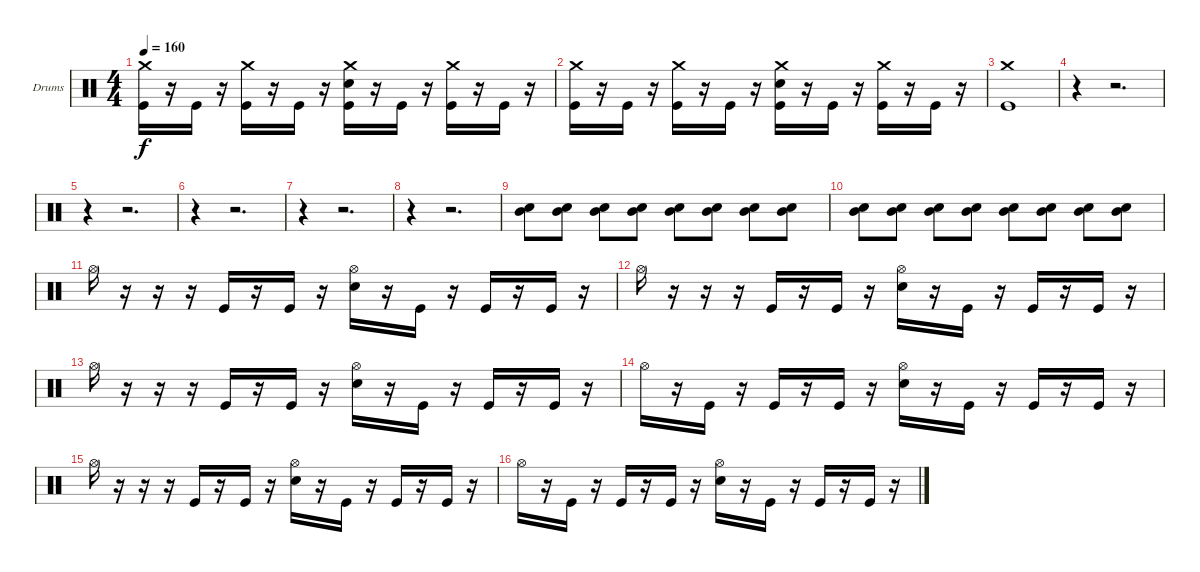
\bracketExtendMode groupsimilarinstruments
\firstSystemTrackNameOrientation horizontal
\otherSystemsTrackNameOrientation horizontal
\track ("Drumkit" "Drums") {instrument percussion}
\staff {score}
\articulation defaults
\ts (4 4)
\tempo 160
\clef neutral
\ks c
("Crash medium (hit)" "Kick (hit)").16{dy f} r.16 "Kick (hit)".16 r.16 ("Crash medium (hit)" "Kick (hit)").16 r.16 "Kick (hit)".16 r.16 ("Crash medium (hit)" "Snare (hit) 2" "Kick (hit)").16 r.16 "Kick (hit)".16 r.16 ("Crash medium (hit)" "Kick (hit)").16 r.16 "Kick (hit)".16 r.16 |
("Crash medium (hit)" "Kick (hit)").16 r.16 "Kick (hit)".16 r.16 ("Crash medium (hit)" "Kick (hit)").16 r.16 "Kick (hit)".16 r.16 ("Crash medium (hit)" "Snare (hit) 2" "Kick (hit)").16 r.16 "Kick (hit)".16 r.16 ("Crash medium (hit)" "Kick (hit)").16 r.16 "Kick (hit)".16 r.16 |
("Crash medium (hit)" "Kick (hit)").1 |
r.4 r.2{d} |
r.4 r.2{d} |
r.4 r.2{d} |
r.4 r.2{d} |
r.4 r.2{d} |
("Mid Tom (hit)" "Snare (hit) 2").8 ("Mid Tom (hit)" "Snare (hit) 2").8 ("Mid Tom (hit)" "Snare (hit) 2").8 ("Mid Tom (hit)" "Snare (hit) 2").8 ("Mid Tom (hit)" "Snare (hit) 2").8 ("Mid Tom (hit)" "Snare (hit) 2").8 ("Mid Tom (hit)" "Snare (hit) 2").8 ("Mid Tom (hit)" "Snare (hit) 2").8 |
("Mid Tom (hit)" "Snare (hit) 2").8 ("Mid Tom (hit)" "Snare (hit) 2").8 ("Mid Tom (hit)" "Snare (hit) 2").8 ("Mid Tom (hit)" "Snare (hit) 2").8 ("Mid Tom (hit)" "Snare (hit) 2").8 ("Mid Tom (hit)" "Snare (hit) 2").8 ("Mid Tom (hit)" "Snare (hit) 2").8 ("Mid Tom (hit)" "Snare (hit) 2").8 |
"Hi-Hat (open)".16 r.16 r.16 r.16 "Kick (hit)".16 r.16 "Kick (hit)".16 r.16 ("Hi-Hat (open)" "Snare (hit) 2").16 r.16 "Kick (hit)".16 r.16 "Kick (hit)".16 r.16 "Kick (hit)".16 r.16 |
"Hi-Hat (open)".16 r.16 r.16 r.16 "Kick (hit)".16 r.16 "Kick (hit)".16 r.16 ("Hi-Hat (open)" "Snare (hit) 2").16 r.16 "Kick (hit)".16 r.16 "Kick (hit)".16 r.16 "Kick (hit)".16 r.16 |
"Hi-Hat (open)".16 r.16 r.16 r.16 "Kick (hit)".16 r.16 "Kick (hit)".16 r.16 ("Hi-Hat (open)" "Snare (hit) 2").16 r.16 "Kick (hit)".16 r.16 "Kick (hit)".16 r.16 "Kick (hit)".16 r.16 |
"Hi-Hat (open)".16 r.16 "Kick (hit)".16 r.16 "Kick (hit)".16 r.16 "Kick (hit)".16 r.16 ("Hi-Hat (open)" "Snare (hit) 2").16 r.16 "Kick (hit)".16 r.16 "Kick (hit)".16 r.16 "Kick (hit)".16 r.16 |
"Hi-Hat (open)".16 r.16 r.16 r.16 "Kick (hit)".16 r.16 "Kick (hit)".16 r.16 ("Hi-Hat (open)" "Snare (hit) 2").16 r.16 "Kick (hit)".16 r.16 "Kick (hit)".16 r.16 "Kick (hit)".16 r.16 |
"Hi-Hat (open)".16 r.16 "Kick (hit)".16 r.16 "Kick (hit)".16 r.16 "Kick (hit)".16 r.16 ("Hi-Hat (open)" "Snare (hit) 2").16 r.16 "Kick (hit)".16 r.16 "Kick (hit)".16 r.16 "Kick (hit)".16 r.16
